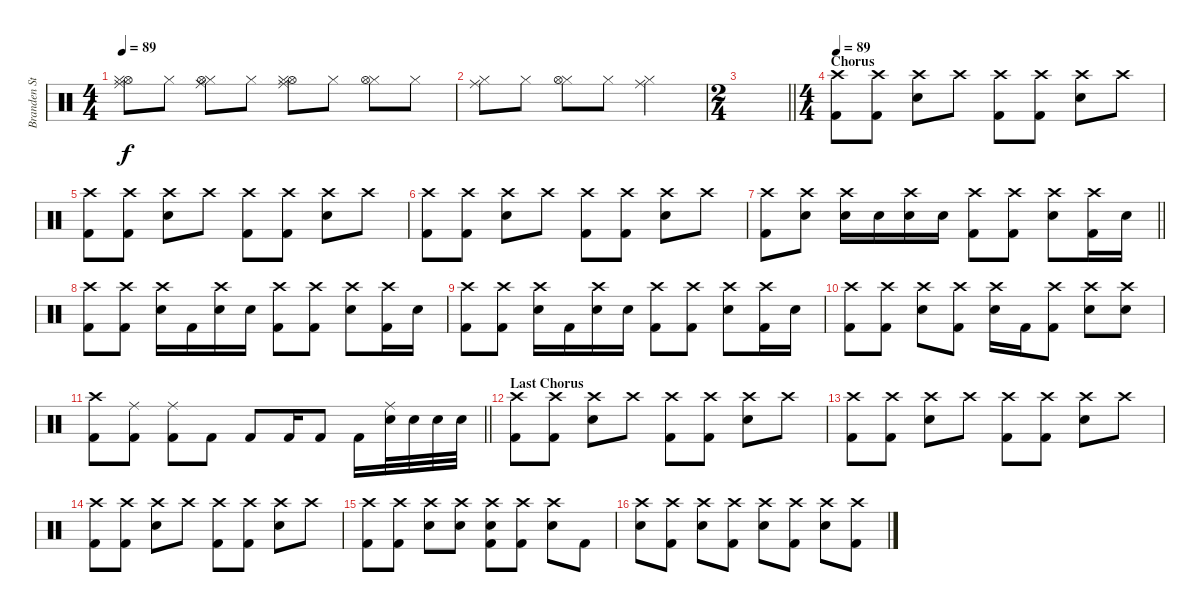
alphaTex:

\track ("Branden Steineckert" "Branden St") {instrument percussion}
\staff {score}
\articulation defaults
\ts (4 4)
\tempo 89
\clef neutral
\ks c
("Hi-Hat (open)" "Hi-Hat (closed)" "Ride (middle)").8{dy f} "Hi-Hat (closed)".8 ("Ride (middle)" "Hi-Hat (closed)" "Hi-Hat (open)").8 "Hi-Hat (closed)".8 ("Hi-Hat (open)" "Hi-Hat (closed)" "Ride (middle)").8 "Hi-Hat (closed)".8 ("Hi-Hat (closed)" "Hi-Hat (open)").8 "Hi-Hat (closed)".8 |
("Hi-Hat (closed)" "Ride (middle)").8 "Hi-Hat (closed)".8 ("Hi-Hat (closed)" "Hi-Hat (open)").8 "Hi-Hat (closed)".8 ("Hi-Hat (closed)" "Ride (middle)").2 |
\ts (2 4)
\barLineRight lightlight
|
\ts (4 4)
\section ("" "Chorus")
\tempo 89
("Crash high (hit)" "Kick (hit) 2").8 ("Crash high (hit)" "Kick (hit) 2").8 ("Crash high (hit)" "Electric Snare (hit)").8 "Crash high (hit)".8 ("Crash high (hit)" "Kick (hit) 2").8 ("Crash high (hit)" "Kick (hit) 2").8 ("Crash high (hit)" "Electric Snare (hit)").8 "Crash high (hit)".8 |
("Crash high (hit)" "Kick (hit) 2").8 ("Crash high (hit)" "Kick (hit) 2").8 ("Crash high (hit)" "Electric Snare (hit)").8 "Crash high (hit)".8 ("Crash high (hit)" "Kick (hit) 2").8 ("Crash high (hit)" "Kick (hit) 2").8 ("Crash high (hit)" "Electric Snare (hit)").8 "Crash high (hit)".8 |
("Crash high (hit)" "Kick (hit) 2").8 ("Crash high (hit)" "Kick (hit) 2").8 ("Crash high (hit)" "Electric Snare (hit)").8 "Crash high (hit)".8 ("Crash high (hit)" "Kick (hit) 2").8 ("Crash high (hit)" "Kick (hit) 2").8 ("Crash high (hit)" "Electric Snare (hit)").8 "Crash high (hit)".8 |
\barLineRight lightlight
("Crash high (hit)" "Kick (hit) 2").8 ("Crash high (hit)" "Electric Snare (hit)").8 ("Crash high (hit)" "Electric Snare (hit)").16 "Electric Snare (hit)".16 ("Crash high (hit)" "Electric Snare (hit)").16 "Electric Snare (hit)".16 ("Crash high (hit)" "Kick (hit) 2").8 ("Crash high (hit)" "Kick (hit) 2").8 ("Crash high (hit)" "Electric Snare (hit)").8 ("Crash high (hit)" "Kick (hit) 2").16 "Electric Snare (hit)".16 |
("Crash high (hit)" "Kick (hit) 2").8 ("Crash high (hit)" "Kick (hit) 2").8 ("Crash high (hit)" "Electric Snare (hit)").16 "Kick (hit) 2".16 ("Crash high (hit)" "Electric Snare (hit)").16 "Electric Snare (hit)".16 ("Crash high (hit)" "Kick (hit) 2").8 ("Crash high (hit)" "Kick (hit) 2").8 ("Crash high (hit)" "Electric Snare (hit)").8 ("Crash high (hit)" "Kick (hit) 2").16 "Electric Snare (hit)".16 |
("Crash high (hit)" "Kick (hit) 2").8 ("Crash high (hit)" "Kick (hit) 2").8 ("Crash high (hit)" "Electric Snare (hit)").16 "Kick (hit) 2".16 ("Crash high (hit)" "Electric Snare (hit)").16 "Electric Snare (hit)".16 ("Crash high (hit)" "Kick (hit) 2").8 ("Crash high (hit)" "Kick (hit) 2").8 ("Crash high (hit)" "Electric Snare (hit)").8 ("Crash high (hit)" "Kick (hit) 2").16 "Electric Snare (hit)".16 |
("Crash high (hit)" "Kick (hit) 2").8 ("Crash high (hit)" "Kick (hit) 2").8 ("Crash high (hit)" "Electric Snare (hit)").8 ("Crash high (hit)" "Kick (hit) 2").8 ("Crash high (hit)" "Electric Snare (hit)").16 "Kick (hit) 2".16 ("Crash high (hit)" "Kick (hit) 2").8 ("Crash high (hit)" "Electric Snare (hit)").8 ("Crash high (hit)" "Electric Snare (hit)").8 |
\barLineRight lightlight
("Crash high (hit)" "Kick (hit) 2").8 ("Ride (middle)" "Kick (hit) 2").8 ("Ride (middle)" "Kick (hit) 2").8 "Kick (hit) 2".8 "Kick (hit) 2".8 "Kick (hit) 2".16 "Kick (hit) 2".8 "Kick (hit) 2".16 ("Electric Snare (hit)" "Ride (middle)").32 "Electric Snare (hit)".32 "Electric Snare (hit)".32 "Electric Snare (hit)".32 |
\section ("" "Last Chorus")
("Crash high (hit)" "Kick (hit) 2").8 ("Crash high (hit)" "Kick (hit) 2").8 ("Crash high (hit)" "Electric Snare (hit)").8 "Crash high (hit)".8 ("Crash high (hit)" "Kick (hit) 2").8 ("Crash high (hit)" "Kick (hit) 2").8 ("Crash high (hit)" "Electric Snare (hit)").8 "Crash high (hit)".8 |
("Crash high (hit)" "Kick (hit) 2").8 ("Crash high (hit)" "Kick (hit) 2").8 ("Crash high (hit)" "Electric Snare (hit)").8 "Crash high (hit)".8 ("Crash high (hit)" "Kick (hit) 2").8 ("Crash high (hit)" "Kick (hit) 2").8 ("Crash high (hit)" "Electric Snare (hit)").8 "Crash high (hit)".8 |
("Crash high (hit)" "Kick (hit) 2").8 ("Crash high (hit)" "Kick (hit) 2").8 ("Crash high (hit)" "Electric Snare (hit)").8 "Crash high (hit)".8 ("Crash high (hit)" "Kick (hit) 2").8 ("Crash high (hit)" "Kick (hit) 2").8 ("Crash high (hit)" "Electric Snare (hit)").8 "Crash high (hit)".8 |
("Crash high (hit)" "Kick (hit) 2").8 ("Crash high (hit)" "Kick (hit) 2").8 ("Crash high (hit)" "Electric Snare (hit)").8 ("Crash high (hit)" "Electric Snare (hit)").8 ("Kick (hit) 2" "Crash high (hit)" "Electric Snare (hit)").8 ("Kick (hit) 2" "Crash high (hit)").8 ("Crash high (hit)" "Electric Snare (hit)").8 "Kick (hit) 2".8 |
("Crash high (hit)" "Electric Snare (hit)").8 ("Crash high (hit)" "Kick (hit) 2").8 ("Crash high (hit)" "Electric Snare (hit)").8 ("Crash high (hit)" "Kick (hit) 2").8 ("Crash high (hit)" "Electric Snare (hit)").8 ("Crash high (hit)" "Kick (hit) 2").8 ("Crash high (hit)" "Electric Snare (hit)").8 ("Crash high (hit)" "Kick (hit) 2").8
